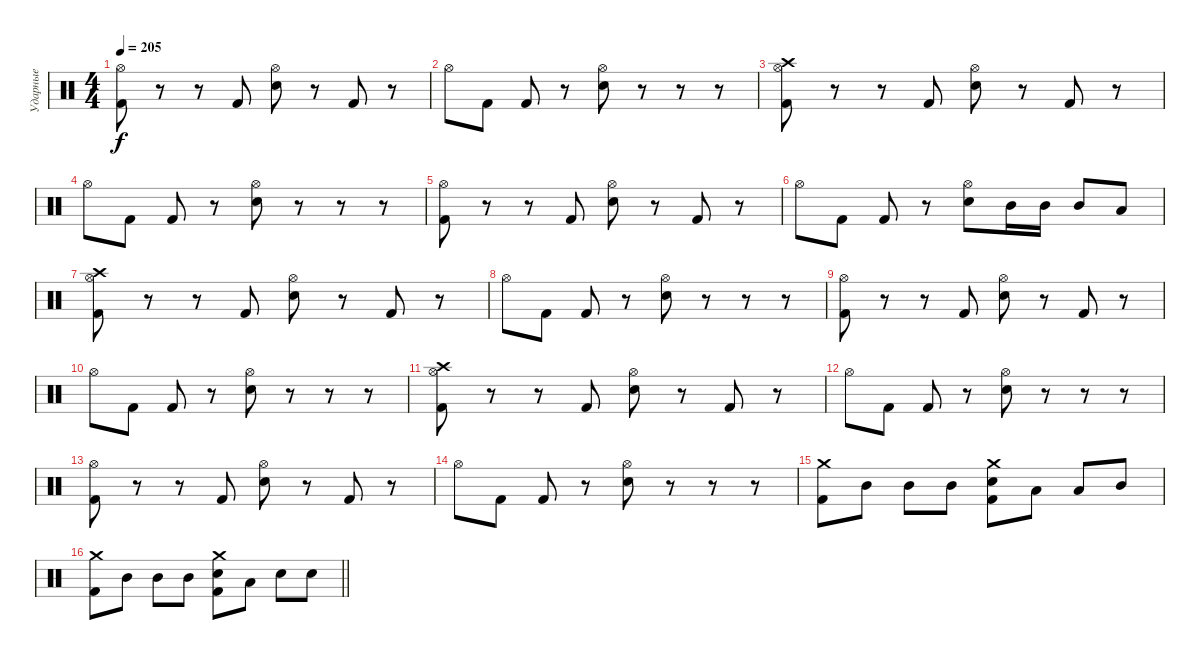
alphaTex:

\track ("Ударные" "Ударные") {instrument percussion}
\staff {score}
\articulation defaults
\ts (4 4)
\tempo 205
\clef neutral
\ks c
("Hi-Hat (open)" "Kick (hit) 2").8{dy f} r.8 r.8 "Kick (hit) 2".8 ("Hi-Hat (open)" "Snare (hit) 2").8 r.8 "Kick (hit) 2".8 r.8 |
"Hi-Hat (open)".8 "Kick (hit) 2".8 "Kick (hit) 2".8 r.8 ("Hi-Hat (open)" "Snare (hit) 2").8 r.8 r.8 r.8 |
("Hi-Hat (open)" "Crash high (hit)" "Kick (hit) 2").8 r.8 r.8 "Kick (hit) 2".8 ("Hi-Hat (open)" "Snare (hit) 2").8 r.8 "Kick (hit) 2".8 r.8 |
"Hi-Hat (open)".8 "Kick (hit) 2".8 "Kick (hit) 2".8 r.8 ("Hi-Hat (open)" "Snare (hit) 2").8 r.8 r.8 r.8 |
("Hi-Hat (open)" "Kick (hit) 2").8 r.8 r.8 "Kick (hit) 2".8 ("Hi-Hat (open)" "Snare (hit) 2").8 r.8 "Kick (hit) 2".8 r.8 |
"Hi-Hat (open)".8 "Kick (hit) 2".8 "Kick (hit) 2".8 r.8 ("Hi-Hat (open)" "Snare (hit) 2").8 "Mid Tom (hit)".16 "Mid Tom (hit)".16 "Mid Tom (hit)".8 "Low Tom (hit)".8 |
("Hi-Hat (open)" "Crash high (hit)" "Kick (hit) 2").8 r.8 r.8 "Kick (hit) 2".8 ("Hi-Hat (open)" "Snare (hit) 2").8 r.8 "Kick (hit) 2".8 r.8 |
"Hi-Hat (open)".8 "Kick (hit) 2".8 "Kick (hit) 2".8 r.8 ("Hi-Hat (open)" "Snare (hit) 2").8 r.8 r.8 r.8 |
("Hi-Hat (open)" "Kick (hit) 2").8 r.8 r.8 "Kick (hit) 2".8 ("Hi-Hat (open)" "Snare (hit) 2").8 r.8 "Kick (hit) 2".8 r.8 |
"Hi-Hat (open)".8 "Kick (hit) 2".8 "Kick (hit) 2".8 r.8 ("Hi-Hat (open)" "Snare (hit) 2").8 r.8 r.8 r.8 |
("Hi-Hat (open)" "Crash high (hit)" "Kick (hit) 2").8 r.8 r.8 "Kick (hit) 2".8 ("Hi-Hat (open)" "Snare (hit) 2").8 r.8 "Kick (hit) 2".8 r.8 |
"Hi-Hat (open)".8 "Kick (hit) 2".8 "Kick (hit) 2".8 r.8 ("Hi-Hat (open)" "Snare (hit) 2").8 r.8 r.8 r.8 |
("Hi-Hat (open)" "Kick (hit) 2").8 r.8 r.8 "Kick (hit) 2".8 ("Hi-Hat (open)" "Snare (hit) 2").8 r.8 "Kick (hit) 2".8 r.8 |
"Hi-Hat (open)".8 "Kick (hit) 2".8 "Kick (hit) 2".8 r.8 ("Hi-Hat (open)" "Snare (hit) 2").8 r.8 r.8 r.8 |
("Crash medium (hit)" "Kick (hit) 2").8 "Mid Tom (hit)".8 "Mid Tom (hit)".8 "Mid Tom (hit)".8 ("Snare (hit) 2" "Crash medium (hit)" "Kick (hit) 2").8 "Low Tom (hit)".8 "Low Tom (hit)".8 "Mid Tom (hit)".8 |
\barLineRight lightlight
("Crash medium (hit)" "Kick (hit) 2").8 "Mid Tom (hit)".8 "Mid Tom (hit)".8 "Mid Tom (hit)".8 ("Snare (hit) 2" "Crash medium (hit)" "Kick (hit) 2").8 "Low Tom (hit)".8 "Snare (hit) 2".8 "Snare (hit) 2".8
